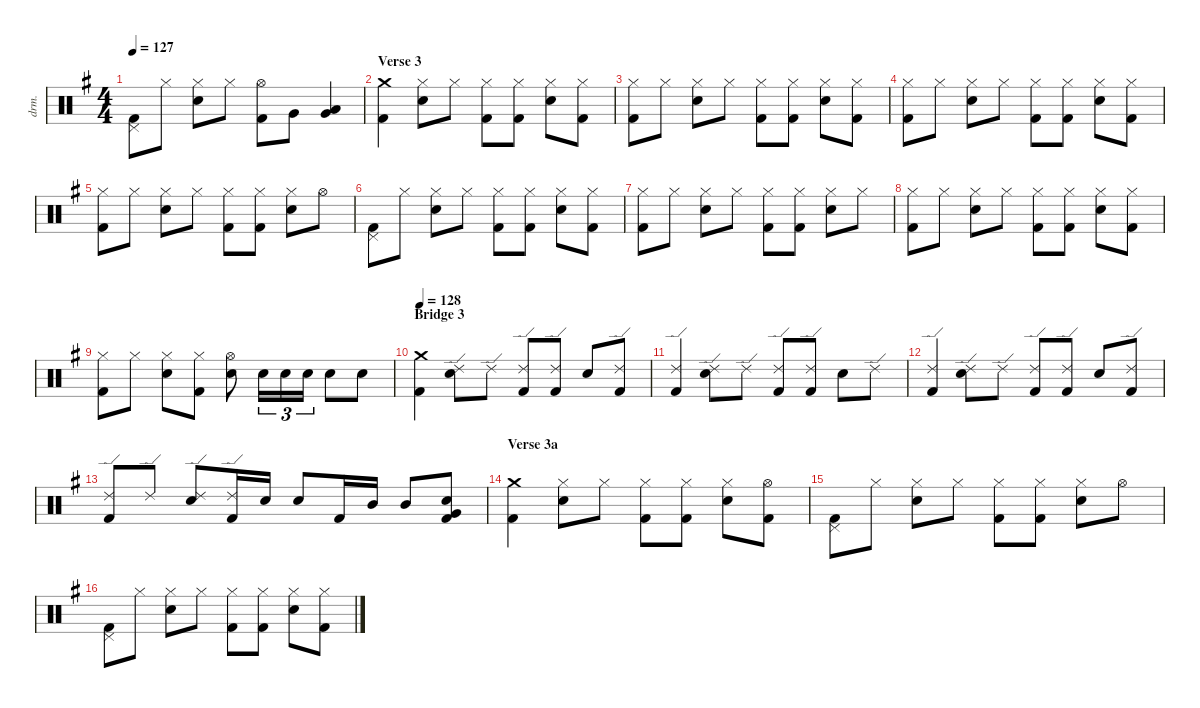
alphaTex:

\defaultSystemsLayout 4
\hideDynamics
\bracketExtendMode nobrackets
\otherSystemsTrackNameOrientation horizontal
\track ("Drums" "drm.") {defaultSystemsLayout 4 instrument percussion}
\staff {score}
\articulation defaults
\ts (4 4)
\tempo 127
\clef neutral
\ks eminor
("Pedal Hi-Hat (hit)"{acc forcenatural} "Kick (hit) 2"{acc forcenatural}).8{dy f beam Down} "Hi-Hat (closed)"{acc forcenatural}.8{dy mf beam Down} ("Hi-Hat (closed)"{acc forcenatural} "Snare (hit) 2"{acc forcenatural}).8{dy f beam Down} "Hi-Hat (closed)"{acc forcenatural}.8{dy mf beam Down} ("Hi-Hat (open)"{acc forcenatural} "Kick (hit) 2"{acc forcenatural}).8{dy f beam Down} "Very Low Tom (hit)"{acc forcenatural}.8{dy fff beam Down} ("Low Tom (hit)"{acc forcenatural} "Very Low Tom (hit)"{acc forcenatural}).4{beam Up} |
\section ("" "Verse 3")
("Crash medium (hit)"{acc forcenatural} "Kick (hit) 2"{acc forcenatural}).4{dy f beam Down} ("Hi-Hat (closed)"{acc forcenatural} "Snare (hit) 2"{acc forcenatural}).8{dy ff beam Down} "Hi-Hat (closed)"{acc forcenatural}.8{dy mf beam Down} ("Hi-Hat (closed)"{acc forcenatural} "Kick (hit) 2"{acc forcenatural}).8{dy f beam Down} ("Hi-Hat (closed)"{acc forcenatural} "Kick (hit) 2"{acc forcenatural}).8{dy mf beam Down} ("Hi-Hat (closed)"{acc forcenatural} "Snare (hit) 2"{acc forcenatural}).8{beam Down} ("Hi-Hat (closed)"{acc forcenatural} "Kick (hit) 2"{acc forcenatural}).8{dy f beam Down} |
("Hi-Hat (closed)"{acc forcenatural} "Kick (hit) 2"{acc forcenatural}).8{dy ff beam Down} "Hi-Hat (closed)"{acc forcenatural}.8{dy mf beam Down} ("Hi-Hat (closed)"{acc forcenatural} "Snare (hit) 2"{acc forcenatural}).8{dy f beam Down} "Hi-Hat (closed)"{acc forcenatural}.8{dy mf beam Down} ("Hi-Hat (closed)"{acc forcenatural} "Kick (hit) 2"{acc forcenatural}).8{beam Down} ("Hi-Hat (closed)"{acc forcenatural} "Kick (hit) 2"{acc forcenatural}).8{beam Down} ("Hi-Hat (closed)"{acc forcenatural} "Snare (hit) 2"{acc forcenatural}).8{dy f beam Down} ("Hi-Hat (closed)"{acc forcenatural} "Kick (hit) 2"{acc forcenatural}).8{dy mf beam Down} |
("Hi-Hat (closed)"{acc forcenatural} "Kick (hit) 2"{acc forcenatural}).8{dy f beam Down} "Hi-Hat (closed)"{acc forcenatural}.8{beam Down} ("Hi-Hat (closed)"{acc forcenatural} "Snare (hit) 2"{acc forcenatural}).8{beam Down} "Hi-Hat (closed)"{acc forcenatural}.8{dy mf beam Down} ("Hi-Hat (closed)"{acc forcenatural} "Kick (hit) 2"{acc forcenatural}).8{dy f beam Down} ("Hi-Hat (closed)"{acc forcenatural} "Kick (hit) 2"{acc forcenatural}).8{dy mf beam Down} ("Hi-Hat (closed)"{acc forcenatural} "Snare (hit) 2"{acc forcenatural}).8{dy f beam Down} ("Hi-Hat (closed)"{acc forcenatural} "Kick (hit) 2"{acc forcenatural}).8{dy mf beam Down} |
("Hi-Hat (closed)"{acc forcenatural} "Kick (hit) 2"{acc forcenatural}).8{dy ff beam Down} "Hi-Hat (closed)"{acc forcenatural}.8{dy mf beam Down} ("Hi-Hat (closed)"{acc forcenatural} "Snare (hit) 2"{acc forcenatural}).8{dy f beam Down} "Hi-Hat (closed)"{acc forcenatural}.8{dy mf beam Down} ("Hi-Hat (closed)"{acc forcenatural} "Kick (hit) 2"{acc forcenatural}).8{beam Down} ("Hi-Hat (closed)"{acc forcenatural} "Kick (hit) 2"{acc forcenatural}).8{beam Down} ("Hi-Hat (closed)"{acc forcenatural} "Snare (hit) 2"{acc forcenatural}).8{dy f beam Down} "Hi-Hat (open)"{acc forcenatural}.8{dy mf beam Down} |
("Pedal Hi-Hat (hit)"{acc forcenatural} "Kick (hit) 2"{acc forcenatural}).8{dy f beam Down} "Hi-Hat (closed)"{acc forcenatural}.8{dy mf beam Down} ("Hi-Hat (closed)"{acc forcenatural} "Snare (hit) 2"{acc forcenatural}).8{dy ff beam Down} "Hi-Hat (closed)"{acc forcenatural}.8{dy mf beam Down} ("Hi-Hat (closed)"{acc forcenatural} "Kick (hit) 2"{acc forcenatural}).8{dy f beam Down} ("Hi-Hat (closed)"{acc forcenatural} "Kick (hit) 2"{acc forcenatural}).8{dy mf beam Down} ("Hi-Hat (closed)"{acc forcenatural} "Snare (hit) 2"{acc forcenatural}).8{beam Down} ("Hi-Hat (closed)"{acc forcenatural} "Kick (hit) 2"{acc forcenatural}).8{dy f beam Down} |
("Hi-Hat (closed)"{acc forcenatural} "Kick (hit) 2"{acc forcenatural}).8{dy ff beam Down} "Hi-Hat (closed)"{acc forcenatural}.8{dy mf beam Down} ("Hi-Hat (closed)"{acc forcenatural} "Snare (hit) 2"{acc forcenatural}).8{dy f beam Down} "Hi-Hat (closed)"{acc forcenatural}.8{dy mf beam Down} ("Hi-Hat (closed)"{acc forcenatural} "Kick (hit) 2"{acc forcenatural}).8{beam Down} ("Hi-Hat (closed)"{acc forcenatural} "Kick (hit) 2"{acc forcenatural}).8{beam Down} ("Hi-Hat (closed)"{acc forcenatural} "Snare (hit) 2"{acc forcenatural}).8{dy f beam Down} "Hi-Hat (closed)"{acc forcenatural}.8{dy mf beam Down} |
("Hi-Hat (closed)"{acc forcenatural} "Kick (hit) 2"{acc forcenatural}).8{dy f beam Down} "Hi-Hat (closed)"{acc forcenatural}.8{beam Down} ("Hi-Hat (closed)"{acc forcenatural} "Snare (hit) 2"{acc forcenatural}).8{beam Down} "Hi-Hat (closed)"{acc forcenatural}.8{dy mf beam Down} ("Hi-Hat (closed)"{acc forcenatural} "Kick (hit) 2"{acc forcenatural}).8{dy f beam Down} ("Hi-Hat (closed)"{acc forcenatural} "Kick (hit) 2"{acc forcenatural}).8{dy mf beam Down} ("Hi-Hat (closed)"{acc forcenatural} "Snare (hit) 2"{acc forcenatural}).8{dy f beam Down} ("Hi-Hat (closed)"{acc forcenatural} "Kick (hit) 2"{acc forcenatural}).8{dy mf beam Down} |
("Hi-Hat (closed)"{acc forcenatural} "Kick (hit) 2"{acc forcenatural}).8{dy ff beam Down} "Hi-Hat (closed)"{acc forcenatural}.8{dy mf beam Down} ("Hi-Hat (closed)"{acc forcenatural} "Snare (hit) 2"{acc forcenatural}).8{dy f beam Down} ("Hi-Hat (closed)"{acc forcenatural} "Kick (hit) 2"{acc forcenatural}).8{dy mf beam Down} ("Hi-Hat (open)"{acc forcenatural} "Snare (hit) 2"{acc forcenatural}).8{dy f beam Down} "Snare (hit) 2"{acc forcenatural}.16{tu (3 2) dy mf beam Down} "Snare (hit) 2"{acc forcenatural}.16{tu (3 2) beam Down} "Snare (hit) 2"{acc forcenatural}.16{tu (3 2) dy mp beam Down} "Snare (hit) 2"{acc forcenatural}.8{dy fff beam Down} "Snare (hit) 2"{acc forcenatural}.8{dy ff beam Down} |
\section ("" "Bridge 3")
\tempo 128
("Crash medium (hit)"{acc forcenatural} "Kick (hit) 2"{acc forcenatural}).4{dy fff beam Down} ("Ride (edge) 2"{acc forcenatural} "Snare (hit) 2"{acc forcenatural}).8{dy ff beam Down} "Ride (edge) 2"{acc forcenatural}.8{dy mf beam Down} ("Ride (edge) 2"{acc forcenatural} "Kick (hit) 2"{acc forcenatural}).8{dy ff beam Up} ("Ride (edge) 2"{acc forcenatural} "Kick (hit) 2"{acc forcenatural}).8{dy f beam Up} "Snare (hit) 2"{acc forcenatural}.8{beam Up} ("Ride (edge) 2"{acc forcenatural} "Kick (hit) 2"{acc forcenatural}).8{dy mf beam Up} |
("Ride (edge) 2"{acc forcenatural} "Kick (hit) 2"{acc forcenatural}).4{dy ff beam Up} ("Ride (edge) 2"{acc forcenatural} "Snare (hit) 2"{acc forcenatural}).8{dy f beam Down} "Ride (edge) 2"{acc forcenatural}.8{dy mf beam Down} ("Ride (edge) 2"{acc forcenatural} "Kick (hit) 2"{acc forcenatural}).8{dy f beam Up} ("Ride (edge) 2"{acc forcenatural} "Kick (hit) 2"{acc forcenatural}).8{dy ff beam Up} "Snare (hit) 2"{acc forcenatural}.8{dy f beam Down} "Ride (edge) 2"{acc forcenatural}.8{beam Down} |
("Ride (edge) 2"{acc forcenatural} "Kick (hit) 2"{acc forcenatural}).4{beam Up} ("Ride (edge) 2"{acc forcenatural} "Snare (hit) 2"{acc forcenatural}).8{dy ff beam Down} "Ride (edge) 2"{acc forcenatural}.8{dy mf beam Down} ("Ride (edge) 2"{acc forcenatural} "Kick (hit) 2"{acc forcenatural}).8{beam Up} ("Ride (edge) 2"{acc forcenatural} "Kick (hit) 2"{acc forcenatural}).8{dy f beam Up} "Snare (hit) 2"{acc forcenatural}.8{beam Up} ("Ride (edge) 2"{acc forcenatural} "Kick (hit) 2"{acc forcenatural}).8{dy mf beam Up} |
("Ride (edge) 2"{acc forcenatural} "Kick (hit) 2"{acc forcenatural}).8{dy ff beam Up} "Ride (edge) 2"{acc forcenatural}.8{dy mf beam Up} ("Ride (edge) 2"{acc forcenatural} "Snare (hit) 2"{acc forcenatural}).8{dy f beam Up} ("Ride (edge) 2"{acc forcenatural} "Kick (hit) 2"{acc forcenatural}).16{dy mf beam Up} "Snare (hit) 2"{acc forcenatural}.16{dy ff beam Up} "Snare (hit) 2"{acc forcenatural}.8{dy fff beam Up} "Kick (hit) 2"{acc forcenatural}.16{dy f beam Up} "Mid Tom (hit)"{acc forcenatural}.16{dy fff beam Up} "Mid Tom (hit)"{acc forcenatural}.8{beam Up} ("Snare (hit) 2"{acc forcenatural} "Very Low Tom (hit)"{acc forcenatural} "Kick (hit) 2"{acc forcenatural}).8{dy f beam Up} |
\section ("" "Verse 3a")
("Crash medium (hit)"{acc forcenatural} "Kick (hit) 2"{acc forcenatural}).4{dy ff beam Down} ("Hi-Hat (closed)"{acc forcenatural} "Snare (hit) 2"{acc forcenatural}).8{beam Down} "Hi-Hat (closed)"{acc forcenatural}.8{dy mf beam Down} ("Hi-Hat (closed)"{acc forcenatural} "Kick (hit) 2"{acc forcenatural}).8{dy f beam Down} ("Hi-Hat (closed)"{acc forcenatural} "Kick (hit) 2"{acc forcenatural}).8{dy mf beam Down} ("Hi-Hat (closed)"{acc forcenatural} "Snare (hit) 2"{acc forcenatural}).8{beam Down} ("Hi-Hat (open)"{acc forcenatural} "Kick (hit) 2"{acc forcenatural}).8{dy f beam Down} |
("Pedal Hi-Hat (hit)"{acc forcenatural} "Kick (hit) 2"{acc forcenatural}).8{beam Down} "Hi-Hat (closed)"{acc forcenatural}.8{dy mf beam Down} ("Hi-Hat (closed)"{acc forcenatural} "Snare (hit) 2"{acc forcenatural}).8{dy f beam Down} "Hi-Hat (closed)"{acc forcenatural}.8{dy mf beam Down} ("Hi-Hat (closed)"{acc forcenatural} "Kick (hit) 2"{acc forcenatural}).8{beam Down} ("Hi-Hat (closed)"{acc forcenatural} "Kick (hit) 2"{acc forcenatural}).8{beam Down} ("Hi-Hat (closed)"{acc forcenatural} "Snare (hit) 2"{acc forcenatural}).8{dy f beam Down} "Hi-Hat (open)"{acc forcenatural}.8{dy mf beam Down} |
("Pedal Hi-Hat (hit)"{acc forcenatural} "Kick (hit) 2"{acc forcenatural}).8{dy f beam Down} "Hi-Hat (closed)"{acc forcenatural}.8{beam Down} ("Hi-Hat (closed)"{acc forcenatural} "Snare (hit) 2"{acc forcenatural}).8{beam Down} "Hi-Hat (closed)"{acc forcenatural}.8{dy mf beam Down} ("Hi-Hat (closed)"{acc forcenatural} "Kick (hit) 2"{acc forcenatural}).8{dy f beam Down} ("Hi-Hat (closed)"{acc forcenatural} "Kick (hit) 2"{acc forcenatural}).8{dy mf beam Down} ("Hi-Hat (closed)"{acc forcenatural} "Snare (hit) 2"{acc forcenatural}).8{dy f beam Down} ("Hi-Hat (closed)"{acc forcenatural} "Kick (hit) 2"{acc forcenatural}).8{dy mf beam Down}
